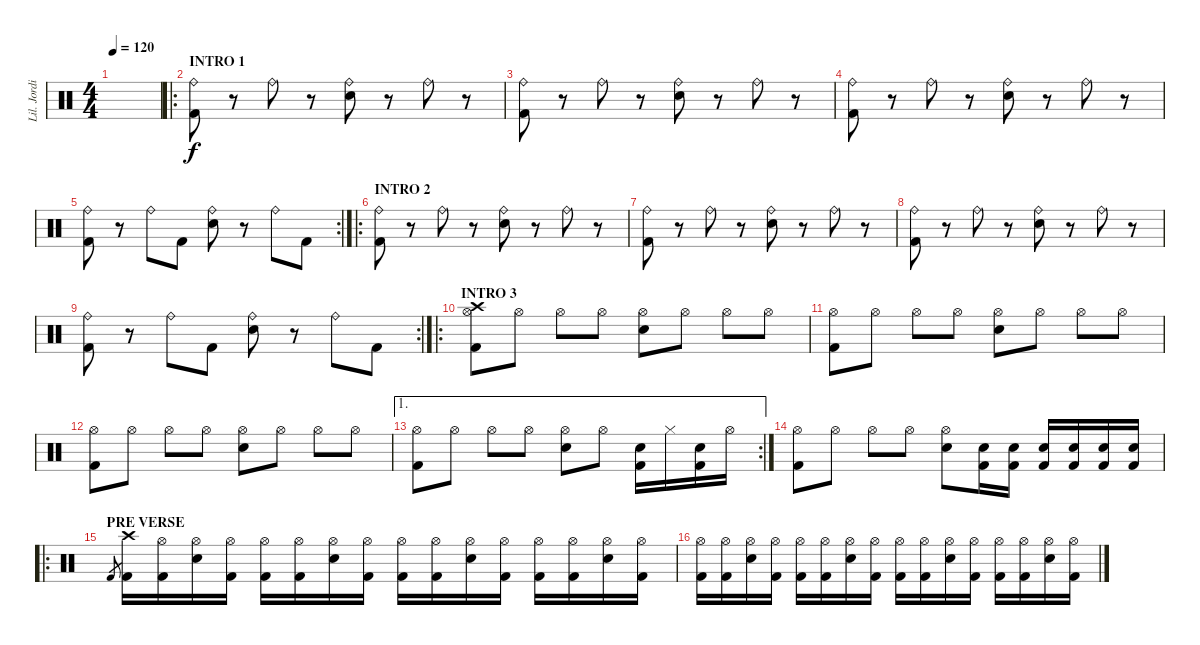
\track ("Lil. Jordison" "Lil. Jordi") {instrument percussion}
\staff {score}
\articulation defaults
\ts (4 4)
\tempo 120
\clef neutral
\ks c
|
\ro
\section ("" "INTRO 1")
("Ride (bell)" "Kick (hit) 2").8 r.8 "Ride (bell)".8 r.8 ("Ride (bell)" "Electric Snare (hit)").8 r.8 "Ride (bell)".8 r.8 |
("Ride (bell)" "Kick (hit) 2").8 r.8 "Ride (bell)".8 r.8 ("Ride (bell)" "Electric Snare (hit)").8 r.8 "Ride (bell)".8 r.8 |
("Ride (bell)" "Kick (hit) 2").8 r.8 "Ride (bell)".8 r.8 ("Ride (bell)" "Electric Snare (hit)").8 r.8 "Ride (bell)".8 r.8 |
\rc 2
("Ride (bell)" "Kick (hit) 2").8 r.8 "Ride (bell)".8 "Kick (hit) 2".8 ("Ride (bell)" "Electric Snare (hit)").8 r.8 "Ride (bell)".8 "Kick (hit) 2".8 |
\ro
\section ("" "INTRO 2")
("Ride (bell)" "Kick (hit) 2").8 r.8 "Ride (bell)".8 r.8 ("Ride (bell)" "Electric Snare (hit)").8 r.8 "Ride (bell)".8 r.8 |
("Ride (bell)" "Kick (hit) 2").8 r.8 "Ride (bell)".8 r.8 ("Ride (bell)" "Electric Snare (hit)").8 r.8 "Ride (bell)".8 r.8 |
("Ride (bell)" "Kick (hit) 2").8 r.8 "Ride (bell)".8 r.8 ("Ride (bell)" "Electric Snare (hit)").8 r.8 "Ride (bell)".8 r.8 |
\rc 2
("Ride (bell)" "Kick (hit) 2").8 r.8 "Ride (bell)".8 "Kick (hit) 2".8 ("Ride (bell)" "Electric Snare (hit)").8 r.8 "Ride (bell)".8 "Kick (hit) 2".8 |
\ro
\section ("" "INTRO 3")
("Crash high (hit)" "Hi-Hat (open)" "Kick (hit) 2").8 "Hi-Hat (open)".8 "Hi-Hat (open)".8 "Hi-Hat (open)".8 ("Hi-Hat (open)" "Electric Snare (hit)").8 "Hi-Hat (open)".8 "Hi-Hat (open)".8 "Hi-Hat (open)".8 |
("Hi-Hat (open)" "Kick (hit) 2").8 "Hi-Hat (open)".8 "Hi-Hat (open)".8 "Hi-Hat (open)".8 ("Hi-Hat (open)" "Electric Snare (hit)").8 "Hi-Hat (open)".8 "Hi-Hat (open)".8 "Hi-Hat (open)".8 |
("Hi-Hat (open)" "Kick (hit) 2").8 "Hi-Hat (open)".8 "Hi-Hat (open)".8 "Hi-Hat (open)".8 ("Hi-Hat (open)" "Electric Snare (hit)").8 "Hi-Hat (open)".8 "Hi-Hat (open)".8 "Hi-Hat (open)".8 |
\ae 1
\rc 2
("Hi-Hat (open)" "Kick (hit) 2").8 "Hi-Hat (open)".8 "Hi-Hat (open)".8 "Hi-Hat (open)".8 ("Hi-Hat (open)" "Electric Snare (hit)").8 "Hi-Hat (open)".8 ("Kick (hit) 2" "Electric Snare (hit)").16 "Hi-Hat (closed)".16 ("Kick (hit) 2" "Electric Snare (hit)").16 "Hi-Hat (open)".16 |
("Hi-Hat (open)" "Kick (hit) 2").8 "Hi-Hat (open)".8 "Hi-Hat (open)".8 "Hi-Hat (open)".8 ("Hi-Hat (open)" "Electric Snare (hit)").8 ("Kick (hit) 2" "Electric Snare (hit)").16 ("Kick (hit) 2" "Electric Snare (hit)").16 ("Kick (hit) 2" "Electric Snare (hit)").16 ("Kick (hit) 2" "Electric Snare (hit)").16 ("Kick (hit) 2" "Electric Snare (hit)").16 ("Kick (hit) 2" "Electric Snare (hit)").16 |
\ro
\section ("" "PRE VERSE")
"Kick (hit) 2".8{gr} ("Crash high (hit)" "Kick (hit) 2").16 ("Hi-Hat (open)" "Kick (hit) 2").16 ("Hi-Hat (open)" "Electric Snare (hit)").16 ("Hi-Hat (open)" "Kick (hit) 2").16 ("Hi-Hat (open)" "Kick (hit) 2").16 ("Hi-Hat (open)" "Kick (hit) 2").16 ("Hi-Hat (open)" "Electric Snare (hit)").16 ("Hi-Hat (open)" "Kick (hit) 2").16 ("Hi-Hat (open)" "Kick (hit) 2").16 ("Hi-Hat (open)" "Kick (hit) 2").16 ("Hi-Hat (open)" "Electric Snare (hit)").16 ("Hi-Hat (open)" "Kick (hit) 2").16 ("Hi-Hat (open)" "Kick (hit) 2").16 ("Hi-Hat (open)" "Kick (hit) 2").16 ("Hi-Hat (open)" "Electric Snare (hit)").16 ("Hi-Hat (open)" "Kick (hit) 2").16 |
("Hi-Hat (open)" "Kick (hit) 2").16 ("Hi-Hat (open)" "Kick (hit) 2").16 ("Hi-Hat (open)" "Electric Snare (hit)").16 ("Hi-Hat (open)" "Kick (hit) 2").16 ("Hi-Hat (open)" "Kick (hit) 2").16 ("Hi-Hat (open)" "Kick (hit) 2").16 ("Hi-Hat (open)" "Electric Snare (hit)").16 ("Hi-Hat (open)" "Kick (hit) 2").16 ("Hi-Hat (open)" "Kick (hit) 2").16 ("Hi-Hat (open)" "Kick (hit) 2").16 ("Hi-Hat (open)" "Electric Snare (hit)").16 ("Hi-Hat (open)" "Kick (hit) 2").16 ("Hi-Hat (open)" "Kick (hit) 2").16 ("Hi-Hat (open)" "Kick (hit) 2").16 ("Hi-Hat (open)" "Electric Snare (hit)").16 ("Hi-Hat (open)" "Kick (hit) 2").16
